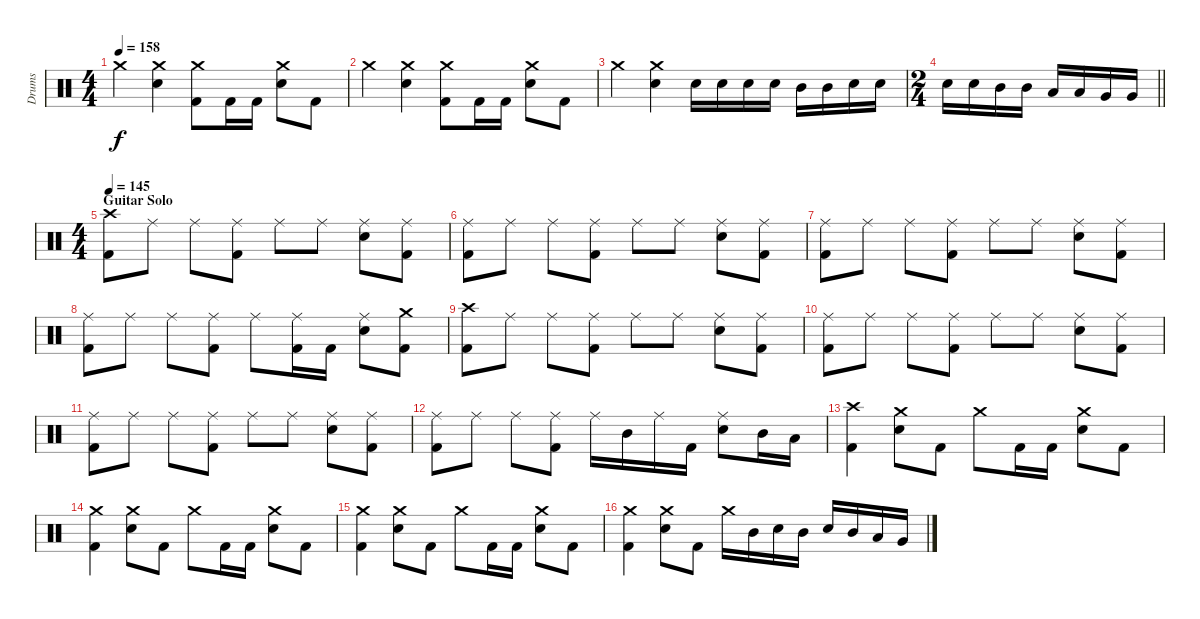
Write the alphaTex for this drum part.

\track ("Drums" "Drums") {instrument percussion}
\staff {score}
\articulation defaults
\ts (4 4)
\tempo 158
\clef neutral
\ks c "Crash medium (hit)".4{dy f}
("Crash medium (hit)" "Electric Snare (hit)").4 ("Crash medium (hit)" "Kick (hit) 2").8 "Kick (hit) 2".16 "Kick (hit) 2".16 ("Crash medium (hit)" "Electric Snare (hit)").8 "Kick (hit) 2".8 |
"Crash medium (hit)".4 ("Crash medium (hit)" "Electric Snare (hit)").4 ("Crash medium (hit)" "Kick (hit) 2").8 "Kick (hit) 2".16 "Kick (hit) 2".16 ("Crash medium (hit)" "Electric Snare (hit)").8 "Kick (hit) 2".8 |
"Crash medium (hit)".4 ("Crash medium (hit)" "Electric Snare (hit)").4 "Electric Snare (hit)".16 "Electric Snare (hit)".16 "Electric Snare (hit)".16 "Electric Snare (hit)".16 "Mid Tom (hit)".16 "Mid Tom (hit)".16 "Electric Snare (hit)".16 "Electric Snare (hit)".16 |
\ts (2 4)
\barLineRight lightlight "Electric Snare (hit)".16 "Electric Snare (hit)".16 "Mid Tom (hit)".16 "Mid Tom (hit)".16 "Low Tom (hit)".16 "Low Tom (hit)".16 "Very Low Tom (hit)".16 "Very Low Tom (hit)".16
|
\ts (4 4)
\section ("" "Guitar Solo")
\tempo 145
("Crash high (hit)" "Kick (hit) 2").8 "Ride (middle)".8 "Ride (middle)".8 ("Ride (middle)" "Kick (hit) 2").8 "Ride (middle)".8 "Ride (middle)".8 ("Ride (middle)" "Electric Snare (hit)").8 ("Ride (middle)" "Kick (hit) 2").8 |
("Ride (middle)" "Kick (hit) 2").8 "Ride (middle)".8 "Ride (middle)".8 ("Ride (middle)" "Kick (hit) 2").8 "Ride (middle)".8 "Ride (middle)".8 ("Ride (middle)" "Electric Snare (hit)").8 ("Ride (middle)" "Kick (hit) 2").8 |
("Ride (middle)" "Kick (hit) 2").8 "Ride (middle)".8 "Ride (middle)".8 ("Ride (middle)" "Kick (hit) 2").8 "Ride (middle)".8 "Ride (middle)".8 ("Ride (middle)" "Electric Snare (hit)").8 ("Ride (middle)" "Kick (hit) 2").8 |
("Ride (middle)" "Kick (hit) 2").8 "Ride (middle)".8 "Ride (middle)".8 ("Ride (middle)" "Kick (hit) 2").8 "Ride (middle)".8 ("Ride (middle)" "Kick (hit) 2").16 "Kick (hit) 2".16 ("Ride (middle)" "Electric Snare (hit)").8 ("Crash medium (hit)" "Kick (hit) 2").8 |
("Crash high (hit)" "Kick (hit) 2").8 "Ride (middle)".8 "Ride (middle)".8 ("Ride (middle)" "Kick (hit) 2").8 "Ride (middle)".8 "Ride (middle)".8 ("Ride (middle)" "Electric Snare (hit)").8 ("Ride (middle)" "Kick (hit) 2").8 |
("Ride (middle)" "Kick (hit) 2").8 "Ride (middle)".8 "Ride (middle)".8 ("Ride (middle)" "Kick (hit) 2").8 "Ride (middle)".8 "Ride (middle)".8 ("Ride (middle)" "Electric Snare (hit)").8 ("Ride (middle)" "Kick (hit) 2").8 |
("Ride (middle)" "Kick (hit) 2").8 "Ride (middle)".8 "Ride (middle)".8 ("Ride (middle)" "Kick (hit) 2").8 "Ride (middle)".8 "Ride (middle)".8 ("Ride (middle)" "Electric Snare (hit)").8 ("Ride (middle)" "Kick (hit) 2").8 |
("Ride (middle)" "Kick (hit) 2").8 "Ride (middle)".8 "Ride (middle)".8 ("Ride (middle)" "Kick (hit) 2").8 "Ride (middle)".16 "Mid Tom (hit)".16 "Ride (middle)".16 "Kick (hit) 2".16 ("Ride (middle)" "Electric Snare (hit)").8 "Mid Tom (hit)".16 "Low Tom (hit)".16 |
("Crash high (hit)" "Kick (hit) 2").4 ("Crash medium (hit)" "Electric Snare (hit)").8 "Kick (hit) 2".8 "Crash medium (hit)".8 "Kick (hit) 2".16 "Kick (hit) 2".16 ("Crash medium (hit)" "Electric Snare (hit)").8 "Kick (hit) 2".8 |
("Crash medium (hit)" "Kick (hit) 2").4 ("Crash medium (hit)" "Electric Snare (hit)").8 "Kick (hit) 2".8 "Crash medium (hit)".8 "Kick (hit) 2".16 "Kick (hit) 2".16 ("Crash medium (hit)" "Electric Snare (hit)").8 "Kick (hit) 2".8 |
("Crash medium (hit)" "Kick (hit) 2").4 ("Crash medium (hit)" "Electric Snare (hit)").8 "Kick (hit) 2".8 "Crash medium (hit)".8 "Kick (hit) 2".16 "Kick (hit) 2".16 ("Crash medium (hit)" "Electric Snare (hit)").8 "Kick (hit) 2".8 |
("Crash medium (hit)" "Kick (hit) 2").4 ("Crash medium (hit)" "Electric Snare (hit)").8 "Kick (hit) 2".8 "Crash medium (hit)".16 "Mid Tom (hit)".16 "Electric Snare (hit)".16 "Mid Tom (hit)".16 "Electric Snare (hit)".16 "Mid Tom (hit)".16 "Low Tom (hit)".16 "Very Low Tom (hit)".16
